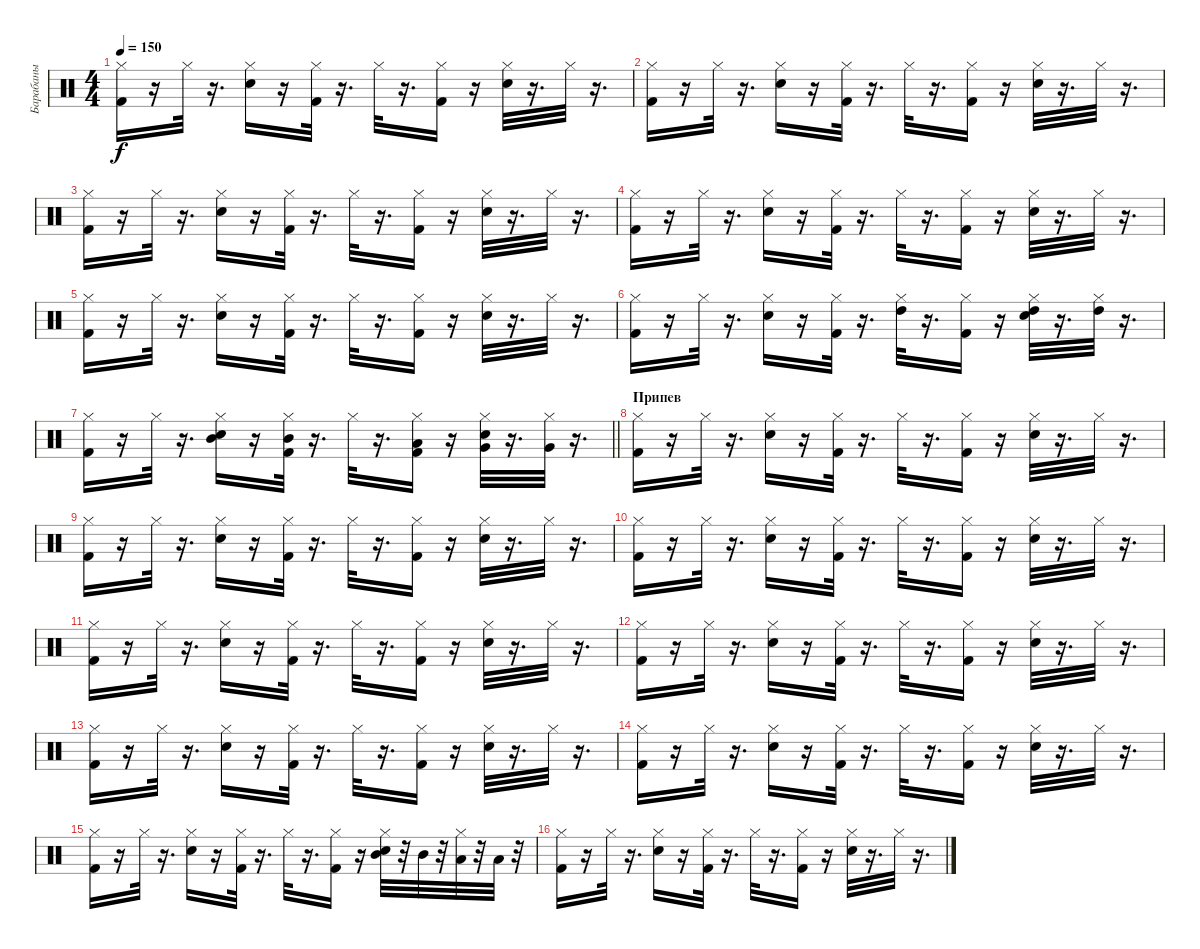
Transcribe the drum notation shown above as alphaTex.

\track ("Барабаны" "Барабаны") {instrument percussion}
\staff {score}
\articulation defaults
\ts (4 4)
\tempo 150
\clef neutral
\ks c
("Kick (hit) 2" "Hi-Hat (closed)").16{dy f} r.16 "Hi-Hat (closed)".32 r.16{d} ("Electric Snare (hit)" "Hi-Hat (closed)").16 r.16 ("Kick (hit) 2" "Hi-Hat (closed)").32 r.16{d} "Hi-Hat (closed)".32 r.16{d} ("Kick (hit) 2" "Hi-Hat (closed)").16 r.16 ("Electric Snare (hit)" "Hi-Hat (closed)").32 r.16{d} "Hi-Hat (closed)".32 r.16{d} |
("Kick (hit) 2" "Hi-Hat (closed)").16 r.16 "Hi-Hat (closed)".32 r.16{d} ("Electric Snare (hit)" "Hi-Hat (closed)").16 r.16 ("Kick (hit) 2" "Hi-Hat (closed)").32 r.16{d} "Hi-Hat (closed)".32 r.16{d} ("Kick (hit) 2" "Hi-Hat (closed)").16 r.16 ("Electric Snare (hit)" "Hi-Hat (closed)").32 r.16{d} "Hi-Hat (closed)".32 r.16{d} |
("Kick (hit) 2" "Hi-Hat (closed)").16 r.16 "Hi-Hat (closed)".32 r.16{d} ("Electric Snare (hit)" "Hi-Hat (closed)").16 r.16 ("Kick (hit) 2" "Hi-Hat (closed)").32 r.16{d} "Hi-Hat (closed)".32 r.16{d} ("Kick (hit) 2" "Hi-Hat (closed)").16 r.16 ("Electric Snare (hit)" "Hi-Hat (closed)").32 r.16{d} "Hi-Hat (closed)".32 r.16{d} |
("Hi-Hat (closed)" "Kick (hit) 2").16 r.16 "Hi-Hat (closed)".32 r.16{d} ("Hi-Hat (closed)" "Electric Snare (hit)").16 r.16 ("Hi-Hat (closed)" "Kick (hit) 2").32 r.16{d} "Hi-Hat (closed)".32 r.16{d} ("Kick (hit) 2" "Hi-Hat (closed)").16 r.16 ("Electric Snare (hit)" "Hi-Hat (closed)").32 r.16{d} "Hi-Hat (closed)".32 r.16{d} |
("Kick (hit) 2" "Hi-Hat (closed)").16 r.16 "Hi-Hat (closed)".32 r.16{d} ("Electric Snare (hit)" "Hi-Hat (closed)").16 r.16 ("Kick (hit) 2" "Hi-Hat (closed)").32 r.16{d} "Hi-Hat (closed)".32 r.16{d} ("Kick (hit) 2" "Hi-Hat (closed)").16 r.16 ("Electric Snare (hit)" "Hi-Hat (closed)").32 r.16{d} "Hi-Hat (closed)".32 r.16{d} |
("Kick (hit) 2" "Hi-Hat (closed)").16 r.16 "Hi-Hat (closed)".32 r.16{d} ("Electric Snare (hit)" "Hi-Hat (closed)").16 r.16 ("Kick (hit) 2" "Hi-Hat (closed)").32 r.16{d} ("High Tom (hit)" "Hi-Hat (closed)").32 r.16{d} ("Kick (hit) 2" "Hi-Hat (closed)").16 r.16 ("Electric Snare (hit)" "Hi-Hat (closed)" "High Tom (hit)").32 r.16{d} ("High Tom (hit)" "Hi-Hat (closed)").32 r.16{d} |
\barLineRight lightlight
("Kick (hit) 2" "Hi-Hat (closed)").16 r.16 "Hi-Hat (closed)".32 r.16{d} ("Electric Snare (hit)" "Hi-Hat (closed)" "Mid Tom (hit)").16 r.16 ("Kick (hit) 2" "Hi-Hat (closed)" "Mid Tom (hit)").32 r.16{d} "Hi-Hat (closed)".32 r.16{d} ("Kick (hit) 2" "Hi-Hat (closed)" "Low Tom (hit)").16 r.16 ("Electric Snare (hit)" "Very Low Tom (hit)" "Hi-Hat (closed)").32 r.16{d} ("Very Low Tom (hit)" "Hi-Hat (closed)").32 r.16{d} |
\section ("" "Припев")
("Hi-Hat (closed)" "Kick (hit) 2").16 r.16 "Hi-Hat (closed)".32 r.16{d} ("Hi-Hat (closed)" "Electric Snare (hit)").16 r.16 ("Kick (hit) 2" "Hi-Hat (closed)").32 r.16{d} "Hi-Hat (closed)".32 r.16{d} ("Hi-Hat (closed)" "Kick (hit) 2").16 r.16 ("Hi-Hat (closed)" "Electric Snare (hit)").32 r.16{d} "Hi-Hat (closed)".32 r.16{d} |
("Kick (hit) 2" "Hi-Hat (closed)").16 r.16 "Hi-Hat (closed)".32 r.16{d} ("Electric Snare (hit)" "Hi-Hat (closed)").16 r.16 ("Kick (hit) 2" "Hi-Hat (closed)").32 r.16{d} "Hi-Hat (closed)".32 r.16{d} ("Kick (hit) 2" "Hi-Hat (closed)").16 r.16 ("Electric Snare (hit)" "Hi-Hat (closed)").32 r.16{d} "Hi-Hat (closed)".32 r.16{d} |
("Kick (hit) 2" "Hi-Hat (closed)").16 r.16 "Hi-Hat (closed)".32 r.16{d} ("Electric Snare (hit)" "Hi-Hat (closed)").16 r.16 ("Kick (hit) 2" "Hi-Hat (closed)").32 r.16{d} "Hi-Hat (closed)".32 r.16{d} ("Kick (hit) 2" "Hi-Hat (closed)").16 r.16 ("Electric Snare (hit)" "Hi-Hat (closed)").32 r.16{d} "Hi-Hat (closed)".32 r.16{d} |
("Kick (hit) 2" "Hi-Hat (closed)").16 r.16 "Hi-Hat (closed)".32 r.16{d} ("Electric Snare (hit)" "Hi-Hat (closed)").16 r.16 ("Kick (hit) 2" "Hi-Hat (closed)").32 r.16{d} "Hi-Hat (closed)".32 r.16{d} ("Kick (hit) 2" "Hi-Hat (closed)").16 r.16 ("Electric Snare (hit)" "Hi-Hat (closed)").32 r.16{d} "Hi-Hat (closed)".32 r.16{d} |
("Hi-Hat (closed)" "Kick (hit) 2").16 r.16 "Hi-Hat (closed)".32 r.16{d} ("Hi-Hat (closed)" "Electric Snare (hit)").16 r.16 ("Hi-Hat (closed)" "Kick (hit) 2").32 r.16{d} "Hi-Hat (closed)".32 r.16{d} ("Kick (hit) 2" "Hi-Hat (closed)").16 r.16 ("Electric Snare (hit)" "Hi-Hat (closed)").32 r.16{d} "Hi-Hat (closed)".32 r.16{d} |
("Kick (hit) 2" "Hi-Hat (closed)").16 r.16 "Hi-Hat (closed)".32 r.16{d} ("Electric Snare (hit)" "Hi-Hat (closed)").16 r.16 ("Kick (hit) 2" "Hi-Hat (closed)").32 r.16{d} "Hi-Hat (closed)".32 r.16{d} ("Kick (hit) 2" "Hi-Hat (closed)").16 r.16 ("Electric Snare (hit)" "Hi-Hat (closed)").32 r.16{d} "Hi-Hat (closed)".32 r.16{d} |
("Kick (hit) 2" "Hi-Hat (closed)").16 r.16 "Hi-Hat (closed)".32 r.16{d} ("Electric Snare (hit)" "Hi-Hat (closed)").16 r.16 ("Kick (hit) 2" "Hi-Hat (closed)").32 r.16{d} "Hi-Hat (closed)".32 r.16{d} ("Kick (hit) 2" "Hi-Hat (closed)").16 r.16 ("Electric Snare (hit)" "Hi-Hat (closed)").32 r.16{d} "Hi-Hat (closed)".32 r.16{d} |
("Kick (hit) 2" "Hi-Hat (closed)").16 r.16 "Hi-Hat (closed)".32 r.16{d} ("Electric Snare (hit)" "Hi-Hat (closed)").16 r.16 ("Kick (hit) 2" "Hi-Hat (closed)").32 r.16{d} "Hi-Hat (closed)".32 r.16{d} ("Kick (hit) 2" "Hi-Hat (closed)").16 r.16 ("Electric Snare (hit)" "Mid Tom (hit)" "Hi-Hat (closed)").32 r.32 "Mid Tom (hit)".32 r.32 ("Low Tom (hit)" "Hi-Hat (closed)").32 r.32 "Low Tom (hit)".32 r.32 |
("Hi-Hat (closed)" "Kick (hit) 2").16 r.16 "Hi-Hat (closed)".32 r.16{d} ("Hi-Hat (closed)" "Electric Snare (hit)").16 r.16 ("Kick (hit) 2" "Hi-Hat (closed)").32 r.16{d} "Hi-Hat (closed)".32 r.16{d} ("Hi-Hat (closed)" "Kick (hit) 2").16 r.16 ("Electric Snare (hit)" "Hi-Hat (closed)").32 r.16{d} "Hi-Hat (closed)".32 r.16{d}
